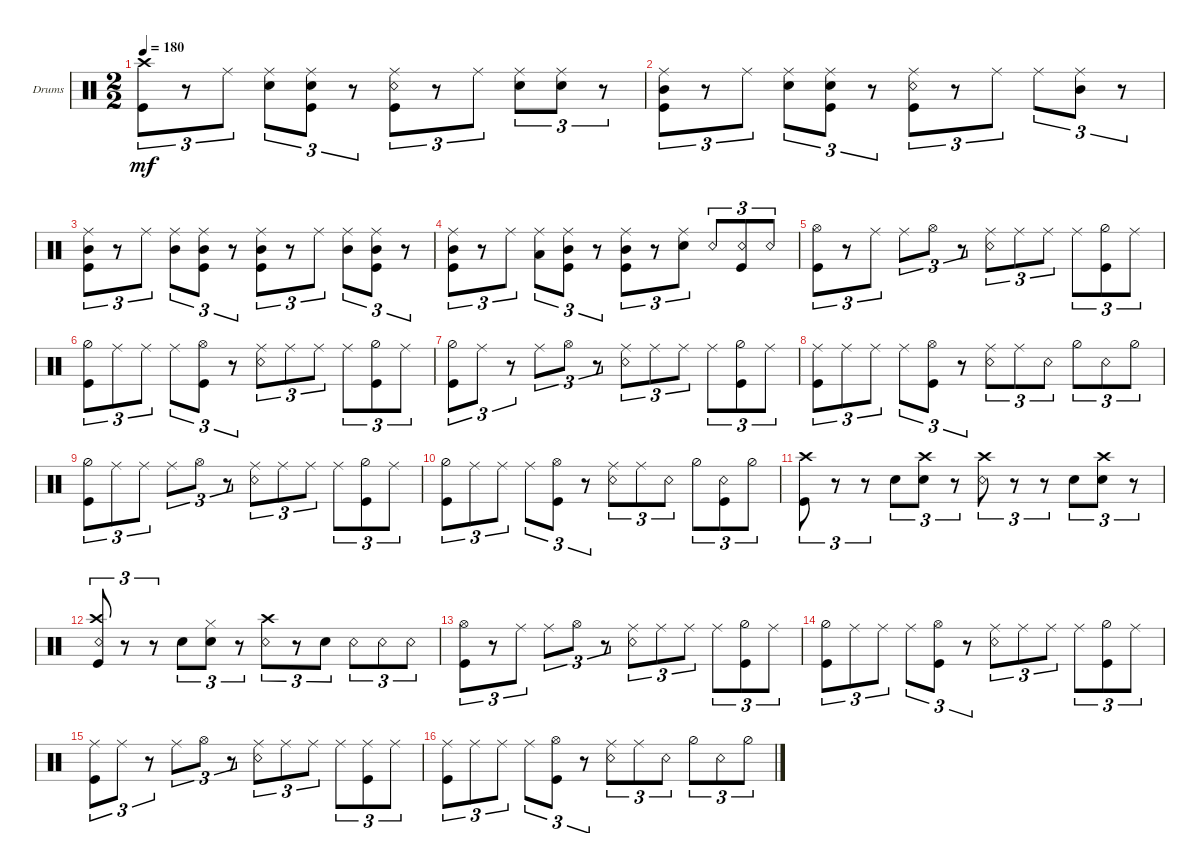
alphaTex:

\defaultSystemsLayout 4
\bracketExtendMode groupsimilarinstruments
\firstSystemTrackNameOrientation horizontal
\otherSystemsTrackNameOrientation horizontal
\track ("Drumkit" "Drums") {instrument percussion}
\staff {score}
\articulation defaults
\ts (2 2)
\tempo 180
\clef neutral
\ks c
("Kick (hit)" "Crash high (hit)").8{tu (3 2) dy mf} r.8{tu (3 2)} "Ride (middle)".8{tu (3 2)} ("Snare (hit) 2" "Ride (middle)").8{tu (3 2)} ("Kick (hit)" "Snare (hit) 2" "Ride (middle)").8{tu (3 2)} r.8{tu (3 2)} ("Kick (hit)" "Ride (middle)" "Snare (rim shot)").8{tu (3 2)} r.8{tu (3 2)} "Ride (middle)".8{tu (3 2)} ("Snare (hit) 2" "Ride (middle)").8{tu (3 2)} ("Snare (hit) 2" "Ride (middle)").8{tu (3 2)} r.8{tu (3 2)} |
("Kick (hit)" "Ride (middle)" "Mid Tom (hit)").8{tu (3 2)} r.8{tu (3 2)} "Ride (middle)".8{tu (3 2)} ("Snare (hit) 2" "Ride (middle)").8{tu (3 2)} ("Kick (hit)" "Snare (hit) 2" "Ride (middle)").8{tu (3 2)} r.8{tu (3 2)} ("Kick (hit)" "Ride (middle)" "Snare (rim shot)").8{tu (3 2)} r.8{tu (3 2)} "Ride (middle)".8{tu (3 2)} "Ride (middle)".8{tu (3 2)} ("Mid Tom (hit)" "Ride (middle)").8{tu (3 2)} r.8{tu (3 2)} |
("Kick (hit)" "Ride (middle)" "Mid Tom (hit)").8{tu (3 2)} r.8{tu (3 2)} "Ride (middle)".8{tu (3 2)} ("Ride (middle)" "Mid Tom (hit)").8{tu (3 2)} ("Kick (hit)" "Mid Tom (hit)" "Ride (middle)").8{tu (3 2)} r.8{tu (3 2)} ("Kick (hit)" "Ride (middle)" "Mid Tom (hit)").8{tu (3 2)} r.8{tu (3 2)} "Ride (middle)".8{tu (3 2)} ("Ride (middle)" "Mid Tom (hit)").8{tu (3 2)} ("Kick (hit)" "Mid Tom (hit)" "Ride (middle)").8{tu (3 2)} r.8{tu (3 2)} |
("Kick (hit)" "Ride (middle)" "Mid Tom (hit)").8{tu (3 2)} r.8{tu (3 2)} "Ride (middle)".8{tu (3 2)} ("Ride (middle)" "Low Tom (hit)").8{tu (3 2)} ("Kick (hit)" "Mid Tom (hit)" "Ride (middle)").8{tu (3 2)} r.8{tu (3 2)} ("Kick (hit)" "Ride (middle)" "Mid Tom (hit)").8{tu (3 2)} r.8{tu (3 2)} ("Snare (hit) 2" "Ride (middle)").8{tu (3 2)} "Snare (rim shot)".8{tu (3 2)} ("Kick (hit)" "Snare (rim shot)").8{tu (3 2)} "Snare (rim shot)".8{tu (3 2)} |
("Kick (hit)" "Hi-Hat (open)").8{tu (3 2)} r.8{tu (3 2)} "Ride (middle)".8{tu (3 2)} "Ride (middle)".8{tu (3 2)} "Hi-Hat (open)".8{tu (3 2)} r.8{tu (3 2)} ("Ride (middle)" "Snare (rim shot)").8{tu (3 2)} "Ride (middle)".8{tu (3 2)} "Ride (middle)".8{tu (3 2)} "Ride (middle)".8{tu (3 2)} ("Kick (hit)" "Hi-Hat (half)").8{tu (3 2)} "Ride (middle)".8{tu (3 2)} |
("Kick (hit)" "Hi-Hat (half)").8{tu (3 2)} "Ride (middle)".8{tu (3 2)} "Ride (middle)".8{tu (3 2)} "Ride (middle)".8{tu (3 2)} ("Hi-Hat (open)" "Kick (hit)").8{tu (3 2)} r.8{tu (3 2)} ("Ride (middle)" "Snare (rim shot)").8{tu (3 2)} "Ride (middle)".8{tu (3 2)} "Ride (middle)".8{tu (3 2)} "Ride (middle)".8{tu (3 2)} ("Kick (hit)" "Hi-Hat (half)").8{tu (3 2)} "Ride (middle)".8{tu (3 2)} |
("Kick (hit)" "Hi-Hat (half)").8{tu (3 2)} "Ride (middle)".8{tu (3 2)} r.8{tu (3 2)} "Ride (middle)".8{tu (3 2)} "Hi-Hat (open)".8{tu (3 2)} r.8{tu (3 2)} ("Ride (middle)" "Snare (rim shot)").8{tu (3 2)} "Ride (middle)".8{tu (3 2)} "Ride (middle)".8{tu (3 2)} "Ride (middle)".8{tu (3 2)} ("Kick (hit)" "Hi-Hat (half)").8{tu (3 2)} "Ride (middle)".8{tu (3 2)} |
("Ride (middle)" "Kick (hit)").8{tu (3 2)} "Ride (middle)".8{tu (3 2)} "Ride (middle)".8{tu (3 2)} "Ride (middle)".8{tu (3 2)} ("Hi-Hat (open)" "Kick (hit)").8{tu (3 2)} r.8{tu (3 2)} ("Ride (middle)" "Snare (rim shot)").8{tu (3 2)} "Ride (middle)".8{tu (3 2)} "Snare (rim shot)".8{tu (3 2)} "Hi-Hat (half)".8{tu (3 2)} "Snare (rim shot)".8{tu (3 2)} "Hi-Hat (half)".8{tu (3 2)} |
("Kick (hit)" "Hi-Hat (half)").8{tu (3 2)} "Ride (middle)".8{tu (3 2)} "Ride (middle)".8{tu (3 2)} "Ride (middle)".8{tu (3 2)} "Hi-Hat (open)".8{tu (3 2)} r.8{tu (3 2)} ("Ride (middle)" "Snare (rim shot)").8{tu (3 2)} "Ride (middle)".8{tu (3 2)} "Ride (middle)".8{tu (3 2)} "Ride (middle)".8{tu (3 2)} ("Kick (hit)" "Hi-Hat (half)").8{tu (3 2)} "Ride (middle)".8{tu (3 2)} |
("Kick (hit)" "Hi-Hat (half)").8{tu (3 2)} "Ride (middle)".8{tu (3 2)} "Ride (middle)".8{tu (3 2)} "Ride (middle)".8{tu (3 2)} ("Hi-Hat (open)" "Kick (hit)").8{tu (3 2)} r.8{tu (3 2)} ("Ride (middle)" "Snare (rim shot)").8{tu (3 2)} "Ride (middle)".8{tu (3 2)} "Snare (rim shot)".8{tu (3 2)} "Hi-Hat (half)".8{tu (3 2)} ("Kick (hit)" "Snare (rim shot)").8{tu (3 2)} "Hi-Hat (half)".8{tu (3 2)} |
("Kick (hit)" "Crash high (hit)").8{tu (3 2)} r.8{tu (3 2)} r.8{tu (3 2)} "Snare (hit) 2".8{tu (3 2)} ("Snare (hit) 2" "Crash high (hit)").8{tu (3 2)} r.8{tu (3 2)} ("Snare (rim shot)" "Crash high (hit)").8{tu (3 2)} r.8{tu (3 2)} r.8{tu (3 2)} "Snare (hit) 2".8{tu (3 2)} ("Snare (hit) 2" "Crash high (hit)").8{tu (3 2)} r.8{tu (3 2)} |
("Kick (hit)" "Snare (rim shot)" "Crash high (hit)").8{tu (3 2)} r.8{tu (3 2)} r.8{tu (3 2)} "Snare (hit) 2".8{tu (3 2)} ("Snare (hit) 2" "Hi-Hat (closed)").8{tu (3 2)} r.8{tu (3 2)} ("Snare (rim shot)" "Crash high (hit)").8{tu (3 2)} r.8{tu (3 2)} "Snare (hit) 2".8{tu (3 2)} "Snare (rim shot)".8{tu (3 2)} "Snare (rim shot)".8{tu (3 2)} "Snare (rim shot)".8{tu (3 2)} |
("Kick (hit)" "Hi-Hat (open)").8{tu (3 2)} r.8{tu (3 2)} "Ride (middle)".8{tu (3 2)} "Ride (middle)".8{tu (3 2)} "Hi-Hat (open)".8{tu (3 2)} r.8{tu (3 2)} ("Ride (middle)" "Snare (rim shot)").8{tu (3 2)} "Ride (middle)".8{tu (3 2)} "Ride (middle)".8{tu (3 2)} "Ride (middle)".8{tu (3 2)} ("Kick (hit)" "Hi-Hat (half)").8{tu (3 2)} "Ride (middle)".8{tu (3 2)} |
("Kick (hit)" "Hi-Hat (half)").8{tu (3 2)} "Ride (middle)".8{tu (3 2)} "Ride (middle)".8{tu (3 2)} "Ride (middle)".8{tu (3 2)} ("Hi-Hat (open)" "Kick (hit)").8{tu (3 2)} r.8{tu (3 2)} ("Ride (middle)" "Snare (rim shot)").8{tu (3 2)} "Ride (middle)".8{tu (3 2)} "Ride (middle)".8{tu (3 2)} "Ride (middle)".8{tu (3 2)} ("Kick (hit)" "Hi-Hat (half)").8{tu (3 2)} "Ride (middle)".8{tu (3 2)} |
("Ride (middle)" "Kick (hit)").8{tu (3 2)} "Ride (middle)".8{tu (3 2)} r.8{tu (3 2)} "Ride (middle)".8{tu (3 2)} "Hi-Hat (open)".8{tu (3 2)} r.8{tu (3 2)} ("Ride (middle)" "Snare (rim shot)").8{tu (3 2)} "Ride (middle)".8{tu (3 2)} "Ride (middle)".8{tu (3 2)} "Ride (middle)".8{tu (3 2)} ("Kick (hit)" "Ride (middle)").8{tu (3 2)} "Ride (middle)".8{tu (3 2)} |
("Ride (middle)" "Kick (hit)").8{tu (3 2)} "Ride (middle)".8{tu (3 2)} "Ride (middle)".8{tu (3 2)} "Ride (middle)".8{tu (3 2)} ("Hi-Hat (open)" "Kick (hit)").8{tu (3 2)} r.8{tu (3 2)} ("Ride (middle)" "Snare (rim shot)").8{tu (3 2)} "Ride (middle)".8{tu (3 2)} "Snare (rim shot)".8{tu (3 2)} "Hi-Hat (half)".8{tu (3 2)} "Snare (rim shot)".8{tu (3 2)} "Hi-Hat (half)".8{tu (3 2)}
